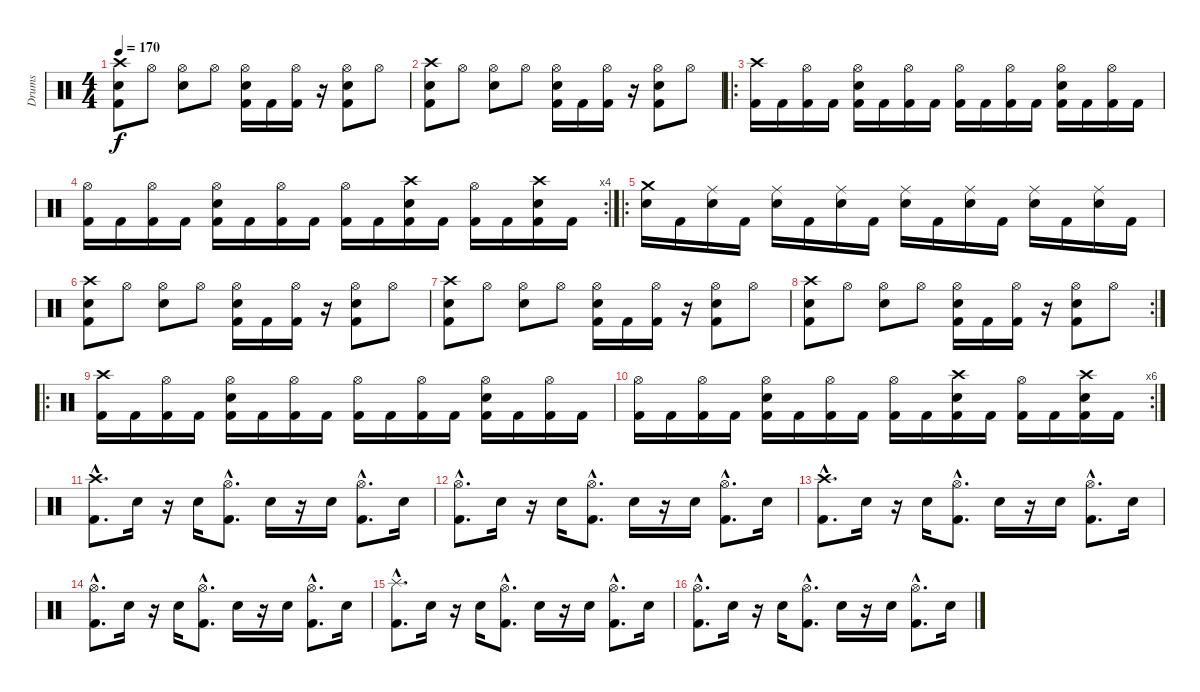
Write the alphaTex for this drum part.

\track ("Drums" "Drums") {instrument percussion}
\staff {score}
\articulation defaults
\ts (4 4)
\tempo 170
\clef neutral
\ks c
("Crash high (hit)" "Electric Snare (hit)" "Kick (hit) 2").8{dy f} "Hi-Hat (open)".8 ("Hi-Hat (open)" "Electric Snare (hit)").8 "Hi-Hat (open)".8 ("Hi-Hat (open)" "Electric Snare (hit)" "Kick (hit) 2").16 "Kick (hit) 2".16 ("Hi-Hat (open)" "Kick (hit) 2").16 r.16 ("Hi-Hat (open)" "Electric Snare (hit)" "Kick (hit) 2").8 "Hi-Hat (open)".8 |
("Crash high (hit)" "Electric Snare (hit)" "Kick (hit) 2").8 "Hi-Hat (open)".8 ("Hi-Hat (open)" "Electric Snare (hit)").8 "Hi-Hat (open)".8 ("Hi-Hat (open)" "Electric Snare (hit)" "Kick (hit) 2").16 "Kick (hit) 2".16 ("Hi-Hat (open)" "Kick (hit) 2").16 r.16 ("Hi-Hat (open)" "Electric Snare (hit)" "Kick (hit) 2").8 "Hi-Hat (open)".8 |
\ro
("Crash high (hit)" "Kick (hit) 2").16 "Kick (hit) 2".16 ("Hi-Hat (open)" "Kick (hit) 2").16 "Kick (hit) 2".16 ("Hi-Hat (open)" "Electric Snare (hit)" "Kick (hit) 2").16 "Kick (hit) 2".16 ("Hi-Hat (open)" "Kick (hit) 2").16 "Kick (hit) 2".16 ("Hi-Hat (open)" "Kick (hit) 2").16 "Kick (hit) 2".16 ("Hi-Hat (open)" "Kick (hit) 2").16 "Kick (hit) 2".16 ("Hi-Hat (open)" "Electric Snare (hit)" "Kick (hit) 2").16 "Kick (hit) 2".16 ("Hi-Hat (open)" "Kick (hit) 2").16 "Kick (hit) 2".16 |
\rc 4
("Hi-Hat (open)" "Kick (hit) 2").16 "Kick (hit) 2".16 ("Hi-Hat (open)" "Kick (hit) 2").16 "Kick (hit) 2".16 ("Hi-Hat (open)" "Electric Snare (hit)" "Kick (hit) 2").16 "Kick (hit) 2".16 ("Hi-Hat (open)" "Kick (hit) 2").16 "Kick (hit) 2".16 ("Hi-Hat (open)" "Kick (hit) 2").16 "Kick (hit) 2".16 ("Crash high (hit)" "Electric Snare (hit)" "Kick (hit) 2").16 "Kick (hit) 2".16 ("Hi-Hat (open)" "Kick (hit) 2").16 "Kick (hit) 2".16 ("Crash high (hit)" "Electric Snare (hit)" "Kick (hit) 2").16 "Kick (hit) 2".16 |
\ro
("Crash medium (hit)" "Electric Snare (hit)").16 "Kick (hit) 2".16 ("Ride (middle)" "Electric Snare (hit)").16 "Kick (hit) 2".16 ("Ride (middle)" "Electric Snare (hit)").16 "Kick (hit) 2".16 ("Ride (middle)" "Electric Snare (hit)").16 "Kick (hit) 2".16 ("Ride (middle)" "Electric Snare (hit)").16 "Kick (hit) 2".16 ("Ride (middle)" "Electric Snare (hit)").16 "Kick (hit) 2".16 ("Ride (middle)" "Electric Snare (hit)").16 "Kick (hit) 2".16 ("Ride (middle)" "Electric Snare (hit)").16 "Kick (hit) 2".16 |
("Crash high (hit)" "Electric Snare (hit)" "Kick (hit) 2").8 "Hi-Hat (open)".8 ("Hi-Hat (open)" "Electric Snare (hit)").8 "Hi-Hat (open)".8 ("Hi-Hat (open)" "Electric Snare (hit)" "Kick (hit) 2").16 "Kick (hit) 2".16 ("Hi-Hat (open)" "Kick (hit) 2").16 r.16 ("Hi-Hat (open)" "Electric Snare (hit)" "Kick (hit) 2").8 "Hi-Hat (open)".8 |
("Crash high (hit)" "Electric Snare (hit)" "Kick (hit) 2").8 "Hi-Hat (open)".8 ("Hi-Hat (open)" "Electric Snare (hit)").8 "Hi-Hat (open)".8 ("Hi-Hat (open)" "Electric Snare (hit)" "Kick (hit) 2").16 "Kick (hit) 2".16 ("Hi-Hat (open)" "Kick (hit) 2").16 r.16 ("Hi-Hat (open)" "Electric Snare (hit)" "Kick (hit) 2").8 "Hi-Hat (open)".8 |
\rc 2
("Crash high (hit)" "Electric Snare (hit)" "Kick (hit) 2").8 "Hi-Hat (open)".8 ("Hi-Hat (open)" "Electric Snare (hit)").8 "Hi-Hat (open)".8 ("Hi-Hat (open)" "Electric Snare (hit)" "Kick (hit) 2").16 "Kick (hit) 2".16 ("Hi-Hat (open)" "Kick (hit) 2").16 r.16 ("Hi-Hat (open)" "Electric Snare (hit)" "Kick (hit) 2").8 "Hi-Hat (open)".8 |
\ro
("Crash high (hit)" "Kick (hit) 2").16 "Kick (hit) 2".16 ("Hi-Hat (open)" "Kick (hit) 2").16 "Kick (hit) 2".16 ("Hi-Hat (open)" "Electric Snare (hit)" "Kick (hit) 2").16 "Kick (hit) 2".16 ("Hi-Hat (open)" "Kick (hit) 2").16 "Kick (hit) 2".16 ("Hi-Hat (open)" "Kick (hit) 2").16 "Kick (hit) 2".16 ("Hi-Hat (open)" "Kick (hit) 2").16 "Kick (hit) 2".16 ("Hi-Hat (open)" "Electric Snare (hit)" "Kick (hit) 2").16 "Kick (hit) 2".16 ("Hi-Hat (open)" "Kick (hit) 2").16 "Kick (hit) 2".16 |
\rc 6
("Hi-Hat (open)" "Kick (hit) 2").16 "Kick (hit) 2".16 ("Hi-Hat (open)" "Kick (hit) 2").16 "Kick (hit) 2".16 ("Hi-Hat (open)" "Electric Snare (hit)" "Kick (hit) 2").16 "Kick (hit) 2".16 ("Hi-Hat (open)" "Kick (hit) 2").16 "Kick (hit) 2".16 ("Hi-Hat (open)" "Kick (hit) 2").16 "Kick (hit) 2".16 ("Crash high (hit)" "Electric Snare (hit)" "Kick (hit) 2").16 "Kick (hit) 2".16 ("Hi-Hat (open)" "Kick (hit) 2").16 "Kick (hit) 2".16 ("Crash high (hit)" "Electric Snare (hit)" "Kick (hit) 2").16 "Kick (hit) 2".16 |
("Crash high (hit)"{hac} "Kick (hit) 2"{hac}).8{d} "Electric Snare (hit)".16 r.16 "Electric Snare (hit)".16 ("Hi-Hat (open)"{hac} "Kick (hit) 2"{hac}).8{d} "Electric Snare (hit)".16 r.16 "Electric Snare (hit)".16 ("Hi-Hat (open)"{hac} "Kick (hit) 2"{hac}).8{d} "Electric Snare (hit)".16 |
("Hi-Hat (open)"{hac} "Kick (hit) 2"{hac}).8{d} "Electric Snare (hit)".16 r.16 "Electric Snare (hit)".16 ("Hi-Hat (open)"{hac} "Kick (hit) 2"{hac}).8{d} "Electric Snare (hit)".16 r.16 "Electric Snare (hit)".16 ("Hi-Hat (open)"{hac} "Kick (hit) 2"{hac}).8{d} "Electric Snare (hit)".16 |
("Crash high (hit)"{hac} "Kick (hit) 2"{hac}).8{d} "Electric Snare (hit)".16 r.16 "Electric Snare (hit)".16 ("Hi-Hat (open)"{hac} "Kick (hit) 2"{hac}).8{d} "Electric Snare (hit)".16 r.16 "Electric Snare (hit)".16 ("Hi-Hat (open)"{hac} "Kick (hit) 2"{hac}).8{d} "Electric Snare (hit)".16 |
("Hi-Hat (open)"{hac} "Kick (hit) 2"{hac}).8{d} "Electric Snare (hit)".16 r.16 "Electric Snare (hit)".16 ("Hi-Hat (open)"{hac} "Kick (hit) 2"{hac}).8{d} "Electric Snare (hit)".16 r.16 "Electric Snare (hit)".16 ("Hi-Hat (open)"{hac} "Kick (hit) 2"{hac}).8{d} "Electric Snare (hit)".16 |
("Splash (hit)"{hac} "Kick (hit) 2"{hac}).8{d} "Electric Snare (hit)".16 r.16 "Electric Snare (hit)".16 ("Hi-Hat (open)"{hac} "Kick (hit) 2"{hac}).8{d} "Electric Snare (hit)".16 r.16 "Electric Snare (hit)".16 ("Hi-Hat (open)"{hac} "Kick (hit) 2"{hac}).8{d} "Electric Snare (hit)".16 |
("Hi-Hat (open)"{hac} "Kick (hit) 2"{hac}).8{d} "Electric Snare (hit)".16 r.16 "Electric Snare (hit)".16 ("Hi-Hat (open)"{hac} "Kick (hit) 2"{hac}).8{d} "Electric Snare (hit)".16 r.16 "Electric Snare (hit)".16 ("Hi-Hat (open)"{hac} "Kick (hit) 2"{hac}).8{d} "Electric Snare (hit)".16
